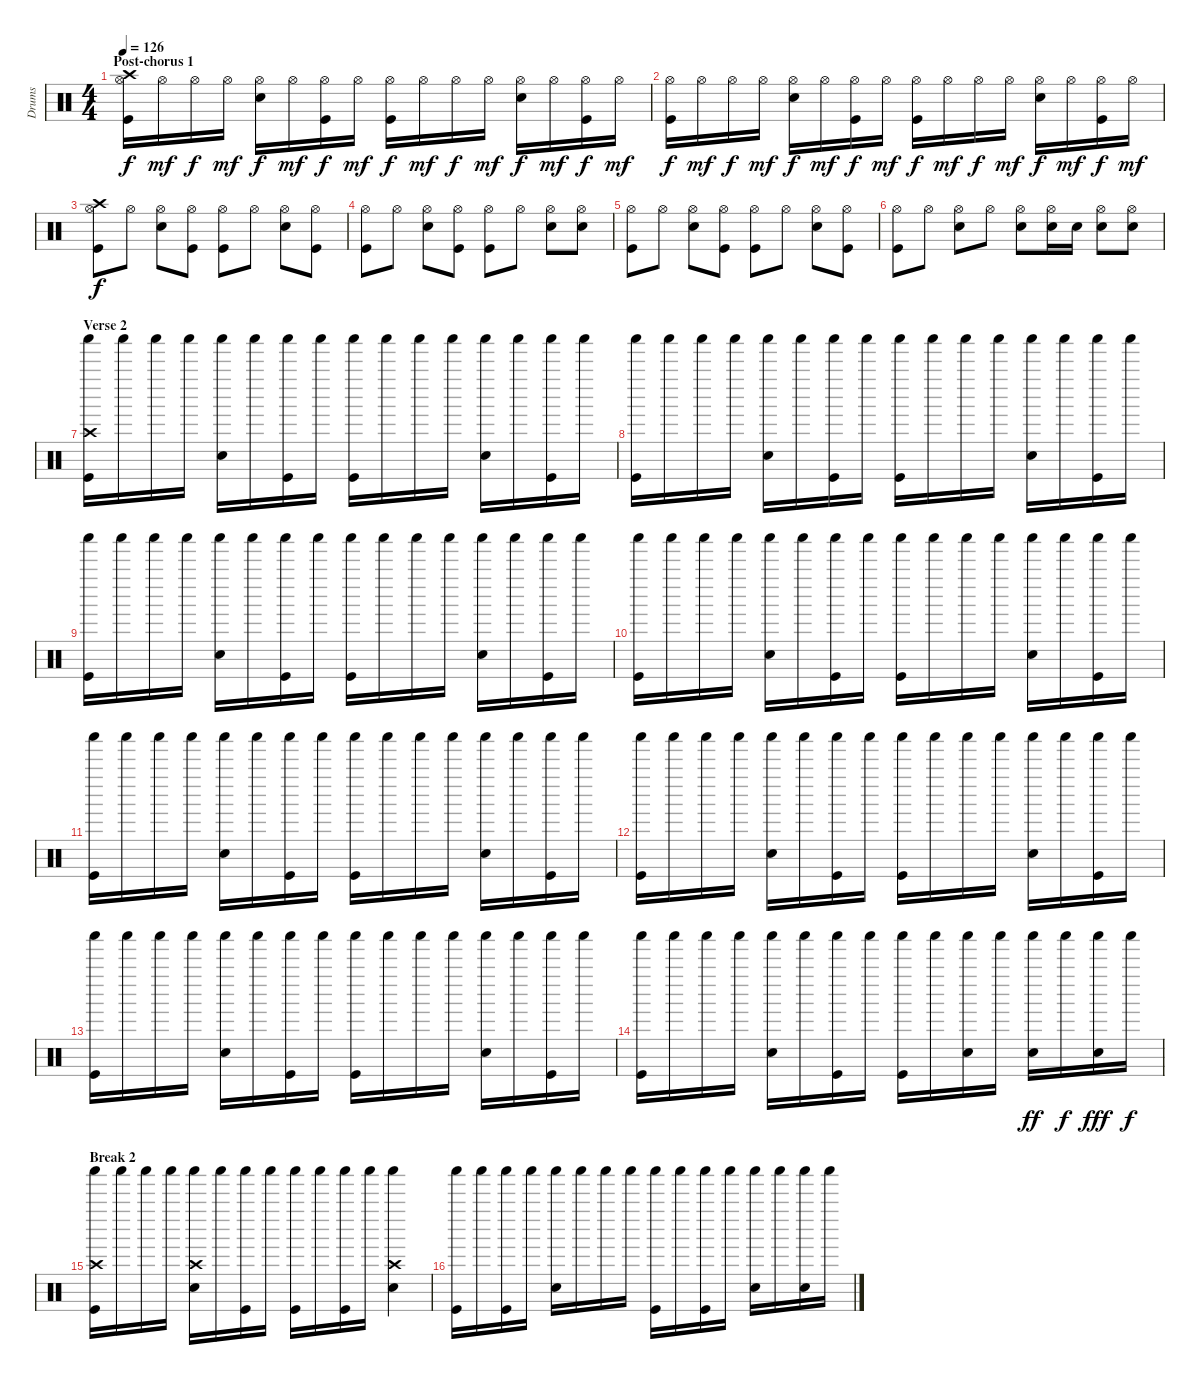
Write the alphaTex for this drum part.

\track ("Drums" "Drums") {instrument percussion}
\staff {score}
\articulation defaults
\ts (4 4)
\section ("" "Post-chorus 1")
\tempo 126
\clef neutral
\ks c
("Hi-Hat (open)" "Crash high (hit)" "Kick (hit)").16{dy f} "Hi-Hat (open)".16{dy mf} "Hi-Hat (open)".16{dy f} "Hi-Hat (open)".16{dy mf} ("Hi-Hat (open)" "Snare (hit) 2").16{dy f} "Hi-Hat (open)".16{dy mf} ("Hi-Hat (open)" "Kick (hit)").16{dy f} "Hi-Hat (open)".16{dy mf} ("Hi-Hat (open)" "Kick (hit)").16{dy f} "Hi-Hat (open)".16{dy mf} "Hi-Hat (open)".16{dy f} "Hi-Hat (open)".16{dy mf} ("Hi-Hat (open)" "Snare (hit) 2").16{dy f} "Hi-Hat (open)".16{dy mf} ("Hi-Hat (open)" "Kick (hit)").16{dy f} "Hi-Hat (open)".16{dy mf} |
("Hi-Hat (open)" "Kick (hit)").16{dy f} "Hi-Hat (open)".16{dy mf} "Hi-Hat (open)".16{dy f} "Hi-Hat (open)".16{dy mf} ("Hi-Hat (open)" "Snare (hit) 2").16{dy f} "Hi-Hat (open)".16{dy mf} ("Hi-Hat (open)" "Kick (hit)").16{dy f} "Hi-Hat (open)".16{dy mf} ("Hi-Hat (open)" "Kick (hit)").16{dy f} "Hi-Hat (open)".16{dy mf} "Hi-Hat (open)".16{dy f} "Hi-Hat (open)".16{dy mf} ("Hi-Hat (open)" "Snare (hit) 2").16{dy f} "Hi-Hat (open)".16{dy mf} ("Hi-Hat (open)" "Kick (hit)").16{dy f} "Hi-Hat (open)".16{dy mf} |
("Hi-Hat (open)" "Crash high (hit)" "Kick (hit)").8{dy f} "Hi-Hat (open)".8 ("Hi-Hat (open)" "Snare (hit) 2").8 ("Hi-Hat (open)" "Kick (hit)").8 ("Hi-Hat (open)" "Kick (hit)").8 "Hi-Hat (open)".8 ("Hi-Hat (open)" "Snare (hit) 2").8 ("Hi-Hat (open)" "Kick (hit)").8 |
("Hi-Hat (open)" "Kick (hit)").8 "Hi-Hat (open)".8 ("Hi-Hat (open)" "Snare (hit) 2").8 ("Hi-Hat (open)" "Kick (hit)").8 ("Hi-Hat (open)" "Kick (hit)").8 "Hi-Hat (open)".8 ("Hi-Hat (open)" "Snare (hit) 2").8 ("Hi-Hat (open)" "Snare (hit) 2").8 |
("Hi-Hat (open)" "Kick (hit)").8 "Hi-Hat (open)".8 ("Hi-Hat (open)" "Snare (hit) 2").8 ("Hi-Hat (open)" "Kick (hit)").8 ("Hi-Hat (open)" "Kick (hit)").8 "Hi-Hat (open)".8 ("Hi-Hat (open)" "Snare (hit) 2").8 ("Hi-Hat (open)" "Kick (hit)").8 |
("Hi-Hat (open)" "Kick (hit)").8 "Hi-Hat (open)".8 ("Hi-Hat (open)" "Snare (hit) 2").8 "Hi-Hat (open)".8 ("Hi-Hat (open)" "Snare (hit) 2").8 ("Hi-Hat (open)" "Snare (hit) 2").16 "Snare (hit) 2".16 ("Hi-Hat (open)" "Snare (hit) 2").8 ("Hi-Hat (open)" "Snare (hit) 2").8 |
\section ("" "Verse 2")
("Shaker (hit)" "Crash high (hit)" "Kick (hit)").16 "Shaker (hit)".16 "Shaker (hit)".16 "Shaker (hit)".16 ("Shaker (hit)" "Snare (hit) 2").16 "Shaker (hit)".16 ("Shaker (hit)" "Kick (hit)").16 "Shaker (hit)".16 ("Shaker (hit)" "Kick (hit)").16 "Shaker (hit)".16 "Shaker (hit)".16 "Shaker (hit)".16 ("Shaker (hit)" "Snare (hit) 2").16 "Shaker (hit)".16 ("Shaker (hit)" "Kick (hit)").16 "Shaker (hit)".16 |
("Shaker (hit)" "Kick (hit)").16 "Shaker (hit)".16 "Shaker (hit)".16 "Shaker (hit)".16 ("Shaker (hit)" "Snare (hit) 2").16 "Shaker (hit)".16 ("Shaker (hit)" "Kick (hit)").16 "Shaker (hit)".16 ("Shaker (hit)" "Kick (hit)").16 "Shaker (hit)".16 "Shaker (hit)".16 "Shaker (hit)".16 ("Shaker (hit)" "Snare (hit) 2").16 "Shaker (hit)".16 ("Shaker (hit)" "Kick (hit)").16 "Shaker (hit)".16 |
("Shaker (hit)" "Kick (hit)").16 "Shaker (hit)".16 "Shaker (hit)".16 "Shaker (hit)".16 ("Shaker (hit)" "Snare (hit) 2").16 "Shaker (hit)".16 ("Shaker (hit)" "Kick (hit)").16 "Shaker (hit)".16 ("Shaker (hit)" "Kick (hit)").16 "Shaker (hit)".16 "Shaker (hit)".16 "Shaker (hit)".16 ("Shaker (hit)" "Snare (hit) 2").16 "Shaker (hit)".16 ("Shaker (hit)" "Kick (hit)").16 "Shaker (hit)".16 |
("Shaker (hit)" "Kick (hit)").16 "Shaker (hit)".16 "Shaker (hit)".16 "Shaker (hit)".16 ("Shaker (hit)" "Snare (hit) 2").16 "Shaker (hit)".16 ("Shaker (hit)" "Kick (hit)").16 "Shaker (hit)".16 ("Shaker (hit)" "Kick (hit)").16 "Shaker (hit)".16 "Shaker (hit)".16 "Shaker (hit)".16 ("Shaker (hit)" "Snare (hit) 2").16 "Shaker (hit)".16 ("Shaker (hit)" "Kick (hit)").16 "Shaker (hit)".16 |
("Shaker (hit)" "Kick (hit)").16 "Shaker (hit)".16 "Shaker (hit)".16 "Shaker (hit)".16 ("Shaker (hit)" "Snare (hit) 2").16 "Shaker (hit)".16 ("Shaker (hit)" "Kick (hit)").16 "Shaker (hit)".16 ("Shaker (hit)" "Kick (hit)").16 "Shaker (hit)".16 "Shaker (hit)".16 "Shaker (hit)".16 ("Shaker (hit)" "Snare (hit) 2").16 "Shaker (hit)".16 ("Shaker (hit)" "Kick (hit)").16 "Shaker (hit)".16 |
("Shaker (hit)" "Kick (hit)").16 "Shaker (hit)".16 "Shaker (hit)".16 "Shaker (hit)".16 ("Shaker (hit)" "Snare (hit) 2").16 "Shaker (hit)".16 ("Shaker (hit)" "Kick (hit)").16 "Shaker (hit)".16 ("Shaker (hit)" "Kick (hit)").16 "Shaker (hit)".16 "Shaker (hit)".16 "Shaker (hit)".16 ("Shaker (hit)" "Snare (hit) 2").16 "Shaker (hit)".16 ("Shaker (hit)" "Kick (hit)").16 "Shaker (hit)".16 |
("Shaker (hit)" "Kick (hit)").16 "Shaker (hit)".16 "Shaker (hit)".16 "Shaker (hit)".16 ("Shaker (hit)" "Snare (hit) 2").16 "Shaker (hit)".16 ("Shaker (hit)" "Kick (hit)").16 "Shaker (hit)".16 ("Shaker (hit)" "Kick (hit)").16 "Shaker (hit)".16 "Shaker (hit)".16 "Shaker (hit)".16 ("Shaker (hit)" "Snare (hit) 2").16 "Shaker (hit)".16 ("Shaker (hit)" "Kick (hit)").16 "Shaker (hit)".16 |
("Shaker (hit)" "Kick (hit)").16 "Shaker (hit)".16 "Shaker (hit)".16 "Shaker (hit)".16 ("Shaker (hit)" "Snare (hit) 2").16 "Shaker (hit)".16 ("Shaker (hit)" "Kick (hit)").16 "Shaker (hit)".16 ("Shaker (hit)" "Kick (hit)").16 "Shaker (hit)".16 ("Shaker (hit)" "Snare (hit) 2").16 "Shaker (hit)".16 ("Shaker (hit)" "Snare (hit) 2").16{dy ff} "Shaker (hit)".16{dy f} ("Shaker (hit)" "Snare (hit) 2").16{dy fff} "Shaker (hit)".16{dy f} |
\section ("" "Break 2")
("Shaker (hit)" "Crash high (hit)" "Kick (hit)").16 "Shaker (hit)".16 "Shaker (hit)".16 "Shaker (hit)".16 ("Shaker (hit)" "Crash high (hit)" "Snare (hit) 2").16 "Shaker (hit)".16 ("Shaker (hit)" "Kick (hit)").16 "Shaker (hit)".16 ("Shaker (hit)" "Kick (hit)").16 "Shaker (hit)".16 ("Shaker (hit)" "Kick (hit)").16 "Shaker (hit)".16 ("Shaker (hit)" "Crash high (hit)" "Snare (hit) 2").4 |
("Shaker (hit)" "Kick (hit)").16 "Shaker (hit)".16 ("Shaker (hit)" "Kick (hit)").16 "Shaker (hit)".16 ("Shaker (hit)" "Snare (hit) 2").16 "Shaker (hit)".16 "Shaker (hit)".16 "Shaker (hit)".16 ("Shaker (hit)" "Kick (hit)").16 "Shaker (hit)".16 ("Shaker (hit)" "Kick (hit)").16 "Shaker (hit)".16 ("Shaker (hit)" "Snare (hit) 2").16 "Shaker (hit)".16 ("Shaker (hit)" "Snare (hit) 2").16 "Shaker (hit)".16
